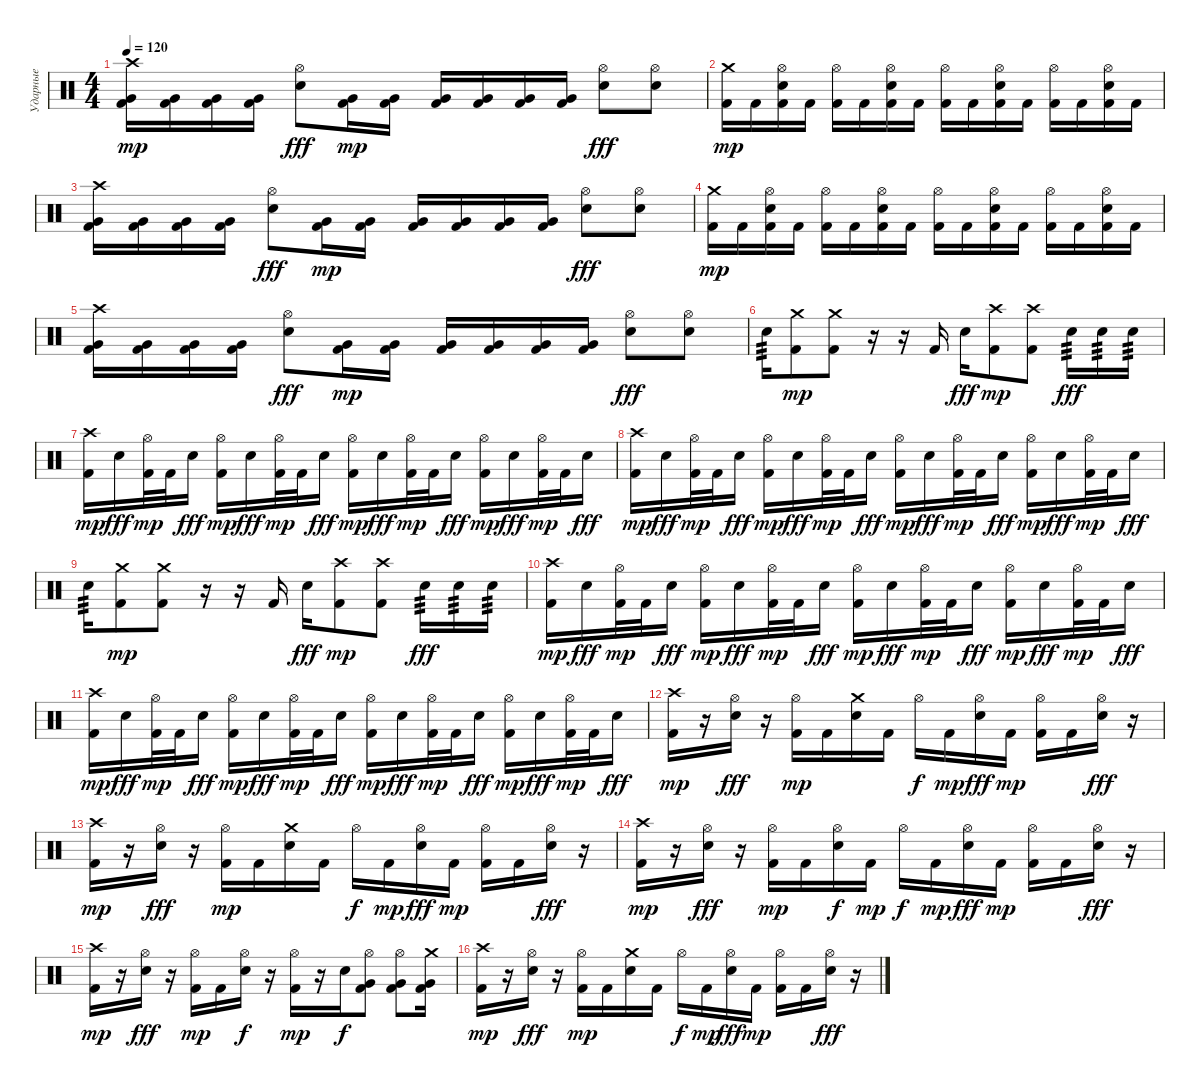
\track ("Ударные" "Ударные") {instrument percussion}
\staff {score}
\articulation defaults
\ts (4 4)
\tempo 120
\clef neutral
\ks c
("Crash high (hit)" "Kick (hit) 2" "Very Low Tom (hit)").16{dy mp} ("Kick (hit) 2" "Very Low Tom (hit)").16 ("Kick (hit) 2" "Very Low Tom (hit)").16 ("Kick (hit) 2" "Very Low Tom (hit)").16 ("Hi-Hat (open)" "Snare (hit) 2").8{dy fff} ("Kick (hit) 2" "Very Low Tom (hit)").16{dy mp} ("Kick (hit) 2" "Very Low Tom (hit)").16 ("Kick (hit) 2" "Very Low Tom (hit)").16 ("Kick (hit) 2" "Very Low Tom (hit)").16 ("Kick (hit) 2" "Very Low Tom (hit)").16 ("Kick (hit) 2" "Very Low Tom (hit)").16 ("Hi-Hat (open)" "Snare (hit) 2").8{dy fff} ("Hi-Hat (open)" "Snare (hit) 2").8 |
("Crash medium (hit)" "Kick (hit) 2").16{dy mp} "Kick (hit) 2".16 ("Hi-Hat (open)" "Snare (hit) 2" "Kick (hit) 2").16 "Kick (hit) 2".16 ("Hi-Hat (open)" "Kick (hit) 2").16 "Kick (hit) 2".16 ("Hi-Hat (open)" "Snare (hit) 2" "Kick (hit) 2").16 "Kick (hit) 2".16 ("Hi-Hat (open)" "Kick (hit) 2").16 "Kick (hit) 2".16 ("Hi-Hat (open)" "Snare (hit) 2" "Kick (hit) 2").16 "Kick (hit) 2".16 ("Hi-Hat (open)" "Kick (hit) 2").16 "Kick (hit) 2".16 ("Hi-Hat (open)" "Snare (hit) 2" "Kick (hit) 2").16 "Kick (hit) 2".16 |
("Crash high (hit)" "Kick (hit) 2" "Very Low Tom (hit)").16 ("Kick (hit) 2" "Very Low Tom (hit)").16 ("Kick (hit) 2" "Very Low Tom (hit)").16 ("Kick (hit) 2" "Very Low Tom (hit)").16 ("Hi-Hat (open)" "Snare (hit) 2").8{dy fff} ("Kick (hit) 2" "Very Low Tom (hit)").16{dy mp} ("Kick (hit) 2" "Very Low Tom (hit)").16 ("Kick (hit) 2" "Very Low Tom (hit)").16 ("Kick (hit) 2" "Very Low Tom (hit)").16 ("Kick (hit) 2" "Very Low Tom (hit)").16 ("Kick (hit) 2" "Very Low Tom (hit)").16 ("Hi-Hat (open)" "Snare (hit) 2").8{dy fff} ("Hi-Hat (open)" "Snare (hit) 2").8 |
("Crash medium (hit)" "Kick (hit) 2").16{dy mp} "Kick (hit) 2".16 ("Hi-Hat (open)" "Snare (hit) 2" "Kick (hit) 2").16 "Kick (hit) 2".16 ("Hi-Hat (open)" "Kick (hit) 2").16 "Kick (hit) 2".16 ("Hi-Hat (open)" "Snare (hit) 2" "Kick (hit) 2").16 "Kick (hit) 2".16 ("Hi-Hat (open)" "Kick (hit) 2").16 "Kick (hit) 2".16 ("Hi-Hat (open)" "Snare (hit) 2" "Kick (hit) 2").16 "Kick (hit) 2".16 ("Hi-Hat (open)" "Kick (hit) 2").16 "Kick (hit) 2".16 ("Hi-Hat (open)" "Snare (hit) 2" "Kick (hit) 2").16 "Kick (hit) 2".16 |
("Crash high (hit)" "Kick (hit) 2" "Very Low Tom (hit)").16 ("Kick (hit) 2" "Very Low Tom (hit)").16 ("Kick (hit) 2" "Very Low Tom (hit)").16 ("Kick (hit) 2" "Very Low Tom (hit)").16 ("Hi-Hat (open)" "Snare (hit) 2").8{dy fff} ("Kick (hit) 2" "Very Low Tom (hit)").16{dy mp} ("Kick (hit) 2" "Very Low Tom (hit)").16 ("Kick (hit) 2" "Very Low Tom (hit)").16 ("Kick (hit) 2" "Very Low Tom (hit)").16 ("Kick (hit) 2" "Very Low Tom (hit)").16 ("Kick (hit) 2" "Very Low Tom (hit)").16 ("Hi-Hat (open)" "Snare (hit) 2").8{dy fff} ("Hi-Hat (open)" "Snare (hit) 2").8 |
"Snare (hit) 2".16{tp 3} ("Crash medium (hit)" "Kick (hit) 2").8{dy mp} ("Crash medium (hit)" "Kick (hit) 2").8 r.16 r.16 "Kick (hit) 2".16 "Snare (hit) 2".16{dy fff} ("Crash high (hit)" "Kick (hit) 2").8{dy mp} ("Crash high (hit)" "Kick (hit) 2").8 "Snare (hit) 2".16{tp 3 dy fff} "Snare (hit) 2".16{tp 3} "Snare (hit) 2".16{tp 3} |
("Crash high (hit)" "Kick (hit) 2").16{dy mp} "Snare (hit) 2".16{dy fff} ("Hi-Hat (open)" "Kick (hit) 2").32{dy mp} "Kick (hit) 2".32 "Snare (hit) 2".16{dy fff} ("Hi-Hat (open)" "Kick (hit) 2").16{dy mp} "Snare (hit) 2".16{dy fff} ("Hi-Hat (open)" "Kick (hit) 2").32{dy mp} "Kick (hit) 2".32 "Snare (hit) 2".16{dy fff} ("Hi-Hat (open)" "Kick (hit) 2").16{dy mp} "Snare (hit) 2".16{dy fff} ("Hi-Hat (open)" "Kick (hit) 2").32{dy mp} "Kick (hit) 2".32 "Snare (hit) 2".16{dy fff} ("Hi-Hat (open)" "Kick (hit) 2").16{dy mp} "Snare (hit) 2".16{dy fff} ("Hi-Hat (open)" "Kick (hit) 2").32{dy mp} "Kick (hit) 2".32 "Snare (hit) 2".16{dy fff} |
("Crash high (hit)" "Kick (hit) 2").16{dy mp} "Snare (hit) 2".16{dy fff} ("Hi-Hat (open)" "Kick (hit) 2").32{dy mp} "Kick (hit) 2".32 "Snare (hit) 2".16{dy fff} ("Hi-Hat (open)" "Kick (hit) 2").16{dy mp} "Snare (hit) 2".16{dy fff} ("Hi-Hat (open)" "Kick (hit) 2").32{dy mp} "Kick (hit) 2".32 "Snare (hit) 2".16{dy fff} ("Hi-Hat (open)" "Kick (hit) 2").16{dy mp} "Snare (hit) 2".16{dy fff} ("Hi-Hat (open)" "Kick (hit) 2").32{dy mp} "Kick (hit) 2".32 "Snare (hit) 2".16{dy fff} ("Hi-Hat (open)" "Kick (hit) 2").16{dy mp} "Snare (hit) 2".16{dy fff} ("Hi-Hat (open)" "Kick (hit) 2").32{dy mp} "Kick (hit) 2".32 "Snare (hit) 2".16{dy fff} |
"Snare (hit) 2".16{tp 3} ("Crash medium (hit)" "Kick (hit) 2").8{dy mp} ("Crash medium (hit)" "Kick (hit) 2").8 r.16 r.16 "Kick (hit) 2".16 "Snare (hit) 2".16{dy fff} ("Crash high (hit)" "Kick (hit) 2").8{dy mp} ("Crash high (hit)" "Kick (hit) 2").8 "Snare (hit) 2".16{tp 3 dy fff} "Snare (hit) 2".16{tp 3} "Snare (hit) 2".16{tp 3} |
("Crash high (hit)" "Kick (hit) 2").16{dy mp} "Snare (hit) 2".16{dy fff} ("Hi-Hat (open)" "Kick (hit) 2").32{dy mp} "Kick (hit) 2".32 "Snare (hit) 2".16{dy fff} ("Hi-Hat (open)" "Kick (hit) 2").16{dy mp} "Snare (hit) 2".16{dy fff} ("Hi-Hat (open)" "Kick (hit) 2").32{dy mp} "Kick (hit) 2".32 "Snare (hit) 2".16{dy fff} ("Hi-Hat (open)" "Kick (hit) 2").16{dy mp} "Snare (hit) 2".16{dy fff} ("Hi-Hat (open)" "Kick (hit) 2").32{dy mp} "Kick (hit) 2".32 "Snare (hit) 2".16{dy fff} ("Hi-Hat (open)" "Kick (hit) 2").16{dy mp} "Snare (hit) 2".16{dy fff} ("Hi-Hat (open)" "Kick (hit) 2").32{dy mp} "Kick (hit) 2".32 "Snare (hit) 2".16{dy fff} |
("Crash high (hit)" "Kick (hit) 2").16{dy mp} "Snare (hit) 2".16{dy fff} ("Hi-Hat (open)" "Kick (hit) 2").32{dy mp} "Kick (hit) 2".32 "Snare (hit) 2".16{dy fff} ("Hi-Hat (open)" "Kick (hit) 2").16{dy mp} "Snare (hit) 2".16{dy fff} ("Hi-Hat (open)" "Kick (hit) 2").32{dy mp} "Kick (hit) 2".32 "Snare (hit) 2".16{dy fff} ("Hi-Hat (open)" "Kick (hit) 2").16{dy mp} "Snare (hit) 2".16{dy fff} ("Hi-Hat (open)" "Kick (hit) 2").32{dy mp} "Kick (hit) 2".32 "Snare (hit) 2".16{dy fff} ("Hi-Hat (open)" "Kick (hit) 2").16{dy mp} "Snare (hit) 2".16{dy fff} ("Hi-Hat (open)" "Kick (hit) 2").32{dy mp} "Kick (hit) 2".32 "Snare (hit) 2".16{dy fff} |
("Crash high (hit)" "Kick (hit) 2").16{dy mp} r.16 ("Hi-Hat (open)" "Snare (hit) 2").16{dy fff} r.16 ("Hi-Hat (open)" "Kick (hit) 2").16{dy mp} "Kick (hit) 2".16 ("Crash medium (hit)" "Snare (hit) 2").16 "Kick (hit) 2".16 "Hi-Hat (open)".16{dy f} "Kick (hit) 2".16{dy mp} ("Hi-Hat (open)" "Snare (hit) 2").16{dy fff} "Kick (hit) 2".16{dy mp} ("Hi-Hat (open)" "Kick (hit) 2").16 "Kick (hit) 2".16 ("Hi-Hat (open)" "Snare (hit) 2").16{dy fff} r.16 |
("Crash high (hit)" "Kick (hit) 2").16{dy mp} r.16 ("Hi-Hat (open)" "Snare (hit) 2").16{dy fff} r.16 ("Hi-Hat (open)" "Kick (hit) 2").16{dy mp} "Kick (hit) 2".16 ("Crash medium (hit)" "Snare (hit) 2").16 "Kick (hit) 2".16 "Hi-Hat (open)".16{dy f} "Kick (hit) 2".16{dy mp} ("Hi-Hat (open)" "Snare (hit) 2").16{dy fff} "Kick (hit) 2".16{dy mp} ("Hi-Hat (open)" "Kick (hit) 2").16 "Kick (hit) 2".16 ("Hi-Hat (open)" "Snare (hit) 2").16{dy fff} r.16 |
("Crash high (hit)" "Kick (hit) 2").16{dy mp} r.16 ("Hi-Hat (open)" "Snare (hit) 2").16{dy fff} r.16 ("Hi-Hat (open)" "Kick (hit) 2").16{dy mp} "Kick (hit) 2".16 ("Hi-Hat (open)" "Snare (hit) 2").16{dy f} "Kick (hit) 2".16{dy mp} "Hi-Hat (open)".16{dy f} "Kick (hit) 2".16{dy mp} ("Hi-Hat (open)" "Snare (hit) 2").16{dy fff} "Kick (hit) 2".16{dy mp} ("Hi-Hat (open)" "Kick (hit) 2").16 "Kick (hit) 2".16 ("Hi-Hat (open)" "Snare (hit) 2").16{dy fff} r.16 |
("Crash high (hit)" "Kick (hit) 2").16{dy mp} r.16 ("Hi-Hat (open)" "Snare (hit) 2").16{dy fff} r.16 ("Hi-Hat (open)" "Kick (hit) 2").16{dy mp} "Kick (hit) 2".16 ("Hi-Hat (open)" "Snare (hit) 2").16{dy f} r.16 ("Hi-Hat (open)" "Kick (hit) 2").16{dy mp} r.16 "Snare (hit) 2".16{dy f} ("Hi-Hat (open)" "Kick (hit) 2" "Very Low Tom (hit)").8 ("Hi-Hat (open)" "Kick (hit) 2" "Very Low Tom (hit)").8 ("Crash medium (hit)" "Kick (hit) 2" "Very Low Tom (hit)").16 |
("Crash high (hit)" "Kick (hit) 2").16{dy mp} r.16 ("Hi-Hat (open)" "Snare (hit) 2").16{dy fff} r.16 ("Hi-Hat (open)" "Kick (hit) 2").16{dy mp} "Kick (hit) 2".16 ("Crash medium (hit)" "Snare (hit) 2").16 "Kick (hit) 2".16 "Hi-Hat (open)".16{dy f} "Kick (hit) 2".16{dy mp} ("Hi-Hat (open)" "Snare (hit) 2").16{dy fff} "Kick (hit) 2".16{dy mp} ("Hi-Hat (open)" "Kick (hit) 2").16 "Kick (hit) 2".16 ("Hi-Hat (open)" "Snare (hit) 2").16{dy fff} r.16
